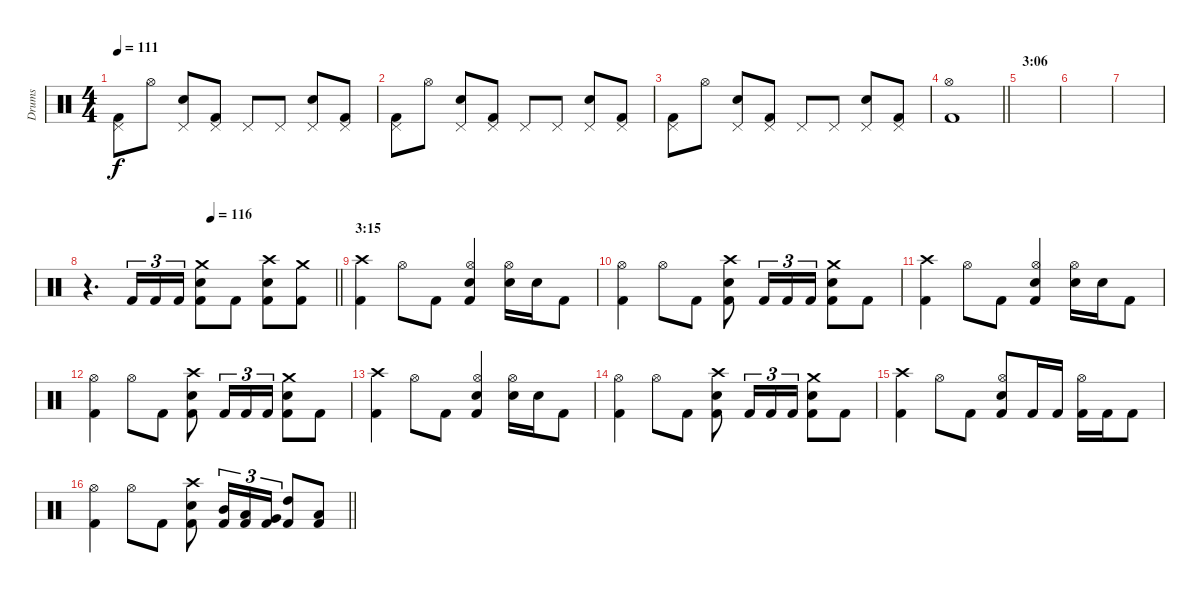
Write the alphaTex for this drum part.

\track ("Drums" "Drums") {instrument percussion}
\staff {score}
\articulation defaults
\ts (4 4)
\tempo 111
\clef neutral
\ks c
("Pedal Hi-Hat (hit)" "Kick (hit) 2").8{dy f} "Hi-Hat (open)".8 ("Pedal Hi-Hat (hit)" "Snare (hit) 2").8 ("Pedal Hi-Hat (hit)" "Kick (hit) 2").8 "Pedal Hi-Hat (hit)".8 "Pedal Hi-Hat (hit)".8 ("Pedal Hi-Hat (hit)" "Snare (hit) 2").8 ("Pedal Hi-Hat (hit)" "Kick (hit) 2").8 |
("Pedal Hi-Hat (hit)" "Kick (hit) 2").8 "Hi-Hat (open)".8 ("Pedal Hi-Hat (hit)" "Snare (hit) 2").8 ("Pedal Hi-Hat (hit)" "Kick (hit) 2").8 "Pedal Hi-Hat (hit)".8 "Pedal Hi-Hat (hit)".8 ("Pedal Hi-Hat (hit)" "Snare (hit) 2").8 ("Pedal Hi-Hat (hit)" "Kick (hit) 2").8 |
("Pedal Hi-Hat (hit)" "Kick (hit) 2").8 "Hi-Hat (open)".8 ("Pedal Hi-Hat (hit)" "Snare (hit) 2").8 ("Pedal Hi-Hat (hit)" "Kick (hit) 2").8 "Pedal Hi-Hat (hit)".8 "Pedal Hi-Hat (hit)".8 ("Pedal Hi-Hat (hit)" "Snare (hit) 2").8 ("Pedal Hi-Hat (hit)" "Kick (hit) 2").8 |
\barLineRight lightlight
("Hi-Hat (open)" "Kick (hit) 2").1 |
\section ("" "3:06")
|
|
|
\tempo (116 0.5)
\barLineRight lightlight
r.4{d volume 13} "Kick (hit) 2".16{tu (3 2)} "Kick (hit) 2".16{tu (3 2)} "Kick (hit) 2".16{tu (3 2)} ("Crash medium (hit)" "Snare (hit) 2" "Kick (hit) 2").8 "Kick (hit) 2".8 ("Crash high (hit)" "Snare (hit) 2" "Kick (hit) 2").8 ("Crash medium (hit)" "Kick (hit) 2").8 |
\section ("" "3:15")
("Crash high (hit)" "Kick (hit) 2").4 "Hi-Hat (open)".8 "Kick (hit) 2".8 ("Hi-Hat (open)" "Snare (hit) 2" "Kick (hit) 2").4 ("Hi-Hat (open)" "Snare (hit) 2").16 "Snare (hit) 2".16 "Kick (hit) 2".8 |
("Hi-Hat (open)" "Kick (hit) 2").4 "Hi-Hat (open)".8 "Kick (hit) 2".8 ("Crash high (hit)" "Snare (hit) 2" "Kick (hit) 2").8 "Kick (hit) 2".16{tu (3 2)} "Kick (hit) 2".16{tu (3 2)} "Kick (hit) 2".16{tu (3 2)} ("Crash medium (hit)" "Snare (hit) 2" "Kick (hit) 2").8 "Kick (hit) 2".8 |
("Crash high (hit)" "Kick (hit) 2").4 "Hi-Hat (open)".8 "Kick (hit) 2".8 ("Hi-Hat (open)" "Snare (hit) 2" "Kick (hit) 2").4 ("Hi-Hat (open)" "Snare (hit) 2").16 "Snare (hit) 2".16 "Kick (hit) 2".8 |
("Hi-Hat (open)" "Kick (hit) 2").4 "Hi-Hat (open)".8 "Kick (hit) 2".8 ("Crash high (hit)" "Snare (hit) 2" "Kick (hit) 2").8 "Kick (hit) 2".16{tu (3 2)} "Kick (hit) 2".16{tu (3 2)} "Kick (hit) 2".16{tu (3 2)} ("Crash medium (hit)" "Snare (hit) 2" "Kick (hit) 2").8 "Kick (hit) 2".8 |
("Crash high (hit)" "Kick (hit) 2").4 "Hi-Hat (open)".8 "Kick (hit) 2".8 ("Hi-Hat (open)" "Snare (hit) 2" "Kick (hit) 2").4 ("Hi-Hat (open)" "Snare (hit) 2").16 "Snare (hit) 2".16 "Kick (hit) 2".8 |
("Hi-Hat (open)" "Kick (hit) 2").4 "Hi-Hat (open)".8 "Kick (hit) 2".8 ("Crash high (hit)" "Snare (hit) 2" "Kick (hit) 2").8 "Kick (hit) 2".16{tu (3 2)} "Kick (hit) 2".16{tu (3 2)} "Kick (hit) 2".16{tu (3 2)} ("Crash medium (hit)" "Snare (hit) 2" "Kick (hit) 2").8 "Kick (hit) 2".8 |
("Crash high (hit)" "Kick (hit) 2").4 "Hi-Hat (open)".8 "Kick (hit) 2".8 ("Hi-Hat (open)" "Snare (hit) 2" "Kick (hit) 2").8 "Kick (hit) 2".16 "Kick (hit) 2".16 ("Hi-Hat (open)" "Kick (hit) 2").16 "Kick (hit) 2".16 "Kick (hit) 2".8 |
\barLineRight lightlight
("Hi-Hat (open)" "Kick (hit) 2").4 "Hi-Hat (open)".8 "Kick (hit) 2".8 ("Crash high (hit)" "Snare (hit) 2" "Kick (hit) 2").8 ("Mid Tom (hit)" "Kick (hit) 2").16{tu (3 2)} ("Low Tom (hit)" "Kick (hit) 2").16{tu (3 2)} ("Very Low Tom (hit)" "Kick (hit) 2").16{tu (3 2)} ("High Tom (hit)" "Kick (hit) 2").8 ("Low Floor Tom (hit)" "Kick (hit) 2").8
